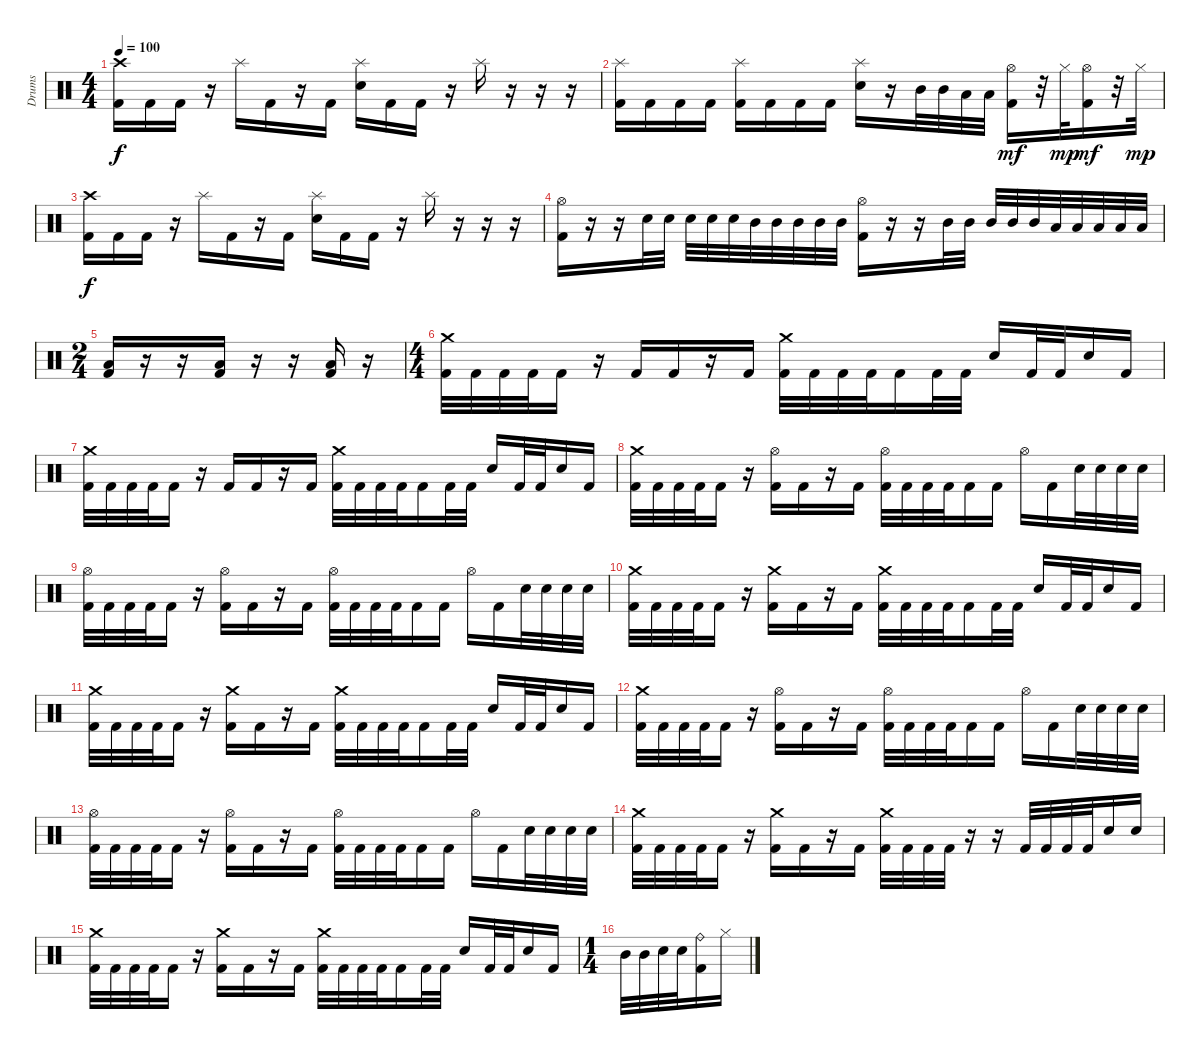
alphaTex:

\track ("Drums" "Drums") {instrument percussion}
\staff {score}
\articulation defaults
\ts (4 4)
\tempo 100
\clef neutral
\ks c
("Kick (hit) 2" "Crash high (hit)").16{dy f} "Kick (hit) 2".16 "Kick (hit) 2".16 r.16 "Splash (hit)".16 "Kick (hit) 2".16 r.16 "Kick (hit) 2".16 ("Electric Snare (hit)" "Splash (hit)").16 "Kick (hit) 2".16 "Kick (hit) 2".16 r.16 "Splash (hit)".16 r.16 r.16 r.16 |
("Kick (hit) 2" "Splash (hit)").16 "Kick (hit) 2".16 "Kick (hit) 2".16 "Kick (hit) 2".16 ("Kick (hit) 2" "Splash (hit)").16 "Kick (hit) 2".16 "Kick (hit) 2".16 "Kick (hit) 2".16 ("Electric Snare (hit)" "Splash (hit)").16 r.16 "Mid Tom (hit)".32 "Mid Tom (hit)".32 "Low Tom (hit)".32 "Low Tom (hit)".32 ("Hi-Hat (open)" "Kick (hit) 2").16{dy mf} r.32 "Hi-Hat (closed)".32{dy mp} ("Hi-Hat (open)" "Kick (hit) 2").16{dy mf} r.32 "Hi-Hat (closed)".32{dy mp} |
("Kick (hit) 2" "Crash high (hit)").16{dy f} "Kick (hit) 2".16 "Kick (hit) 2".16 r.16 "Splash (hit)".16 "Kick (hit) 2".16 r.16 "Kick (hit) 2".16 ("Electric Snare (hit)" "Splash (hit)").16 "Kick (hit) 2".16 "Kick (hit) 2".16 r.16 "Splash (hit)".16 r.16 r.16 r.16 |
("Kick (hit) 2" "Hi-Hat (open)").16 r.16 r.16 "Electric Snare (hit)".32 "Electric Snare (hit)".32 "Electric Snare (hit)".32 "Electric Snare (hit)".32 "Electric Snare (hit)".32 "Mid Tom (hit)".32 "Mid Tom (hit)".32 "Mid Tom (hit)".32 "Mid Tom (hit)".32 "Mid Tom (hit)".32 ("Kick (hit) 2" "Hi-Hat (open)").16 r.16 r.16 "Mid Tom (hit)".32 "Mid Tom (hit)".32 "Mid Tom (hit)".32 "Mid Tom (hit)".32 "Mid Tom (hit)".32 "Low Tom (hit)".32 "Low Tom (hit)".32 "Low Tom (hit)".32 "Low Tom (hit)".32 "Low Tom (hit)".32 |
\ts (2 4)
("Kick (hit) 2" "Low Tom (hit)").16 r.16 r.16 ("Kick (hit) 2" "Low Tom (hit)").16 r.16 r.16 ("Kick (hit) 2" "Low Tom (hit)").16 r.16 |
\ts (4 4)
("Kick (hit) 2" "Crash medium (hit)").32 "Kick (hit) 2".32 "Kick (hit) 2".32 "Kick (hit) 2".32 "Kick (hit) 2".16 r.16 "Kick (hit) 2".16 "Kick (hit) 2".16 r.16 "Kick (hit) 2".16 ("Kick (hit) 2" "Crash medium (hit)").32 "Kick (hit) 2".32 "Kick (hit) 2".32 "Kick (hit) 2".32 "Kick (hit) 2".16 "Kick (hit) 2".32 "Kick (hit) 2".32 "Electric Snare (hit)".16 "Kick (hit) 2".32 "Kick (hit) 2".32 "Electric Snare (hit)".16 "Kick (hit) 2".16 |
("Kick (hit) 2" "Crash medium (hit)").32 "Kick (hit) 2".32 "Kick (hit) 2".32 "Kick (hit) 2".32 "Kick (hit) 2".16 r.16 "Kick (hit) 2".16 "Kick (hit) 2".16 r.16 "Kick (hit) 2".16 ("Kick (hit) 2" "Crash medium (hit)").32 "Kick (hit) 2".32 "Kick (hit) 2".32 "Kick (hit) 2".32 "Kick (hit) 2".16 "Kick (hit) 2".32 "Kick (hit) 2".32 "Electric Snare (hit)".16 "Kick (hit) 2".32 "Kick (hit) 2".32 "Electric Snare (hit)".16 "Kick (hit) 2".16 |
("Kick (hit) 2" "Crash medium (hit)").32 "Kick (hit) 2".32 "Kick (hit) 2".32 "Kick (hit) 2".32 "Kick (hit) 2".16 r.16 ("Kick (hit) 2" "Hi-Hat (open)").16 "Kick (hit) 2".16 r.16 "Kick (hit) 2".16 ("Kick (hit) 2" "Hi-Hat (open)").32 "Kick (hit) 2".32 "Kick (hit) 2".32 "Kick (hit) 2".32 "Kick (hit) 2".16 "Kick (hit) 2".16 "Hi-Hat (open)".16 "Kick (hit) 2".16 "Electric Snare (hit)".32 "Electric Snare (hit)".32 "Electric Snare (hit)".32 "Electric Snare (hit)".32 |
("Kick (hit) 2" "Hi-Hat (open)").32 "Kick (hit) 2".32 "Kick (hit) 2".32 "Kick (hit) 2".32 "Kick (hit) 2".16 r.16 ("Kick (hit) 2" "Hi-Hat (open)").16 "Kick (hit) 2".16 r.16 "Kick (hit) 2".16 ("Kick (hit) 2" "Hi-Hat (open)").32 "Kick (hit) 2".32 "Kick (hit) 2".32 "Kick (hit) 2".32 "Kick (hit) 2".16 "Kick (hit) 2".16 "Hi-Hat (open)".16 "Kick (hit) 2".16 "Electric Snare (hit)".32 "Electric Snare (hit)".32 "Electric Snare (hit)".32 "Electric Snare (hit)".32 |
("Kick (hit) 2" "Crash medium (hit)").32 "Kick (hit) 2".32 "Kick (hit) 2".32 "Kick (hit) 2".32 "Kick (hit) 2".16 r.16 ("Kick (hit) 2" "Crash medium (hit)").16 "Kick (hit) 2".16 r.16 "Kick (hit) 2".16 ("Kick (hit) 2" "Crash medium (hit)").32 "Kick (hit) 2".32 "Kick (hit) 2".32 "Kick (hit) 2".32 "Kick (hit) 2".16 "Kick (hit) 2".32 "Kick (hit) 2".32 "Electric Snare (hit)".16 "Kick (hit) 2".32 "Kick (hit) 2".32 "Electric Snare (hit)".16 "Kick (hit) 2".16 |
("Kick (hit) 2" "Crash medium (hit)").32 "Kick (hit) 2".32 "Kick (hit) 2".32 "Kick (hit) 2".32 "Kick (hit) 2".16 r.16 ("Kick (hit) 2" "Crash medium (hit)").16 "Kick (hit) 2".16 r.16 "Kick (hit) 2".16 ("Kick (hit) 2" "Crash medium (hit)").32 "Kick (hit) 2".32 "Kick (hit) 2".32 "Kick (hit) 2".32 "Kick (hit) 2".16 "Kick (hit) 2".32 "Kick (hit) 2".32 "Electric Snare (hit)".16 "Kick (hit) 2".32 "Kick (hit) 2".32 "Electric Snare (hit)".16 "Kick (hit) 2".16 |
("Kick (hit) 2" "Crash medium (hit)").32 "Kick (hit) 2".32 "Kick (hit) 2".32 "Kick (hit) 2".32 "Kick (hit) 2".16 r.16 ("Kick (hit) 2" "Hi-Hat (open)").16 "Kick (hit) 2".16 r.16 "Kick (hit) 2".16 ("Kick (hit) 2" "Hi-Hat (open)").32 "Kick (hit) 2".32 "Kick (hit) 2".32 "Kick (hit) 2".32 "Kick (hit) 2".16 "Kick (hit) 2".16 "Hi-Hat (open)".16 "Kick (hit) 2".16 "Electric Snare (hit)".32 "Electric Snare (hit)".32 "Electric Snare (hit)".32 "Electric Snare (hit)".32 |
("Kick (hit) 2" "Hi-Hat (open)").32 "Kick (hit) 2".32 "Kick (hit) 2".32 "Kick (hit) 2".32 "Kick (hit) 2".16 r.16 ("Kick (hit) 2" "Hi-Hat (open)").16 "Kick (hit) 2".16 r.16 "Kick (hit) 2".16 ("Kick (hit) 2" "Hi-Hat (open)").32 "Kick (hit) 2".32 "Kick (hit) 2".32 "Kick (hit) 2".32 "Kick (hit) 2".16 "Kick (hit) 2".16 "Hi-Hat (open)".16 "Kick (hit) 2".16 "Electric Snare (hit)".32 "Electric Snare (hit)".32 "Electric Snare (hit)".32 "Electric Snare (hit)".32 |
("Kick (hit) 2" "Crash medium (hit)").32 "Kick (hit) 2".32 "Kick (hit) 2".32 "Kick (hit) 2".32 "Kick (hit) 2".16 r.16 ("Kick (hit) 2" "Crash medium (hit)").16 "Kick (hit) 2".16 r.16 "Kick (hit) 2".16 ("Kick (hit) 2" "Crash medium (hit)").32 "Kick (hit) 2".32 "Kick (hit) 2".32 "Kick (hit) 2".32 r.16 r.16 "Kick (hit) 2".32 "Kick (hit) 2".32 "Kick (hit) 2".32 "Kick (hit) 2".32 "Electric Snare (hit)".16 "Electric Snare (hit)".16 |
("Kick (hit) 2" "Crash medium (hit)").32 "Kick (hit) 2".32 "Kick (hit) 2".32 "Kick (hit) 2".32 "Kick (hit) 2".16 r.16 ("Kick (hit) 2" "Crash medium (hit)").16 "Kick (hit) 2".16 r.16 "Kick (hit) 2".16 ("Kick (hit) 2" "Crash medium (hit)").32 "Kick (hit) 2".32 "Kick (hit) 2".32 "Kick (hit) 2".32 "Kick (hit) 2".16 "Kick (hit) 2".32 "Kick (hit) 2".32 "Electric Snare (hit)".16 "Kick (hit) 2".32 "Kick (hit) 2".32 "Electric Snare (hit)".16 "Kick (hit) 2".16 |
\ts (1 4)
"Mid Tom (hit)".32 "Mid Tom (hit)".32 "Electric Snare (hit)".32 "Electric Snare (hit)".32 ("Ride (bell)" "Kick (hit) 2").16 "Hi-Hat (closed)".16
